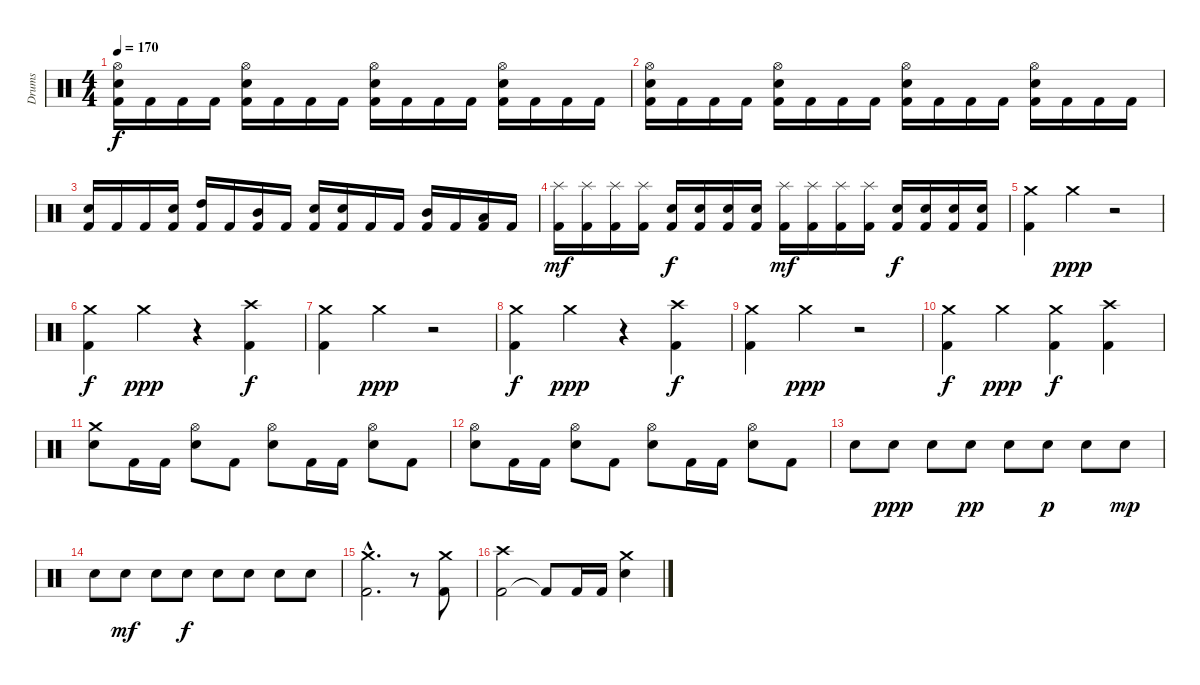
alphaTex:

\track ("Drums" "Drums") {instrument percussion}
\staff {score}
\articulation defaults
\ts (4 4)
\tempo 170
\clef neutral
\ks c
("Kick (hit) 2" "Electric Snare (hit)" "Hi-Hat (open)").16{dy f} "Kick (hit) 2".16 "Kick (hit) 2".16 "Kick (hit) 2".16 ("Kick (hit) 2" "Electric Snare (hit)" "Hi-Hat (open)").16 "Kick (hit) 2".16 "Kick (hit) 2".16 "Kick (hit) 2".16 ("Kick (hit) 2" "Electric Snare (hit)" "Hi-Hat (open)").16 "Kick (hit) 2".16 "Kick (hit) 2".16 "Kick (hit) 2".16 ("Kick (hit) 2" "Electric Snare (hit)" "Hi-Hat (open)").16 "Kick (hit) 2".16 "Kick (hit) 2".16 "Kick (hit) 2".16 |
("Kick (hit) 2" "Electric Snare (hit)" "Hi-Hat (open)").16 "Kick (hit) 2".16 "Kick (hit) 2".16 "Kick (hit) 2".16 ("Kick (hit) 2" "Electric Snare (hit)" "Hi-Hat (open)").16 "Kick (hit) 2".16 "Kick (hit) 2".16 "Kick (hit) 2".16 ("Kick (hit) 2" "Electric Snare (hit)" "Hi-Hat (open)").16 "Kick (hit) 2".16 "Kick (hit) 2".16 "Kick (hit) 2".16 ("Kick (hit) 2" "Electric Snare (hit)" "Hi-Hat (open)").16 "Kick (hit) 2".16 "Kick (hit) 2".16 "Kick (hit) 2".16 |
("Kick (hit) 2" "Electric Snare (hit)").16 "Kick (hit) 2".16 "Kick (hit) 2".16 ("Kick (hit) 2" "Electric Snare (hit)").16 ("Kick (hit) 2" "High Tom (hit)").16 "Kick (hit) 2".16 ("Kick (hit) 2" "Mid Tom (hit)").16 "Kick (hit) 2".16 ("Kick (hit) 2" "Electric Snare (hit)").16 ("Kick (hit) 2" "Electric Snare (hit)").16 "Kick (hit) 2".16 "Kick (hit) 2".16 ("Kick (hit) 2" "Mid Tom (hit)").16 "Kick (hit) 2".16 ("Kick (hit) 2" "Low Tom (hit)").16 "Kick (hit) 2".16 |
("Kick (hit) 2" "Splash (hit)").16{dy mf} ("Kick (hit) 2" "Splash (hit)").16 ("Kick (hit) 2" "Splash (hit)").16 ("Kick (hit) 2" "Splash (hit)").16 ("Kick (hit) 2" "Electric Snare (hit)").16{dy f} ("Kick (hit) 2" "Electric Snare (hit)").16 ("Kick (hit) 2" "Electric Snare (hit)").16 ("Kick (hit) 2" "Electric Snare (hit)").16 ("Kick (hit) 2" "Splash (hit)").16{dy mf} ("Kick (hit) 2" "Splash (hit)").16 ("Kick (hit) 2" "Splash (hit)").16 ("Kick (hit) 2" "Splash (hit)").16 ("Kick (hit) 2" "Electric Snare (hit)").16{dy f} ("Kick (hit) 2" "Electric Snare (hit)").16 ("Kick (hit) 2" "Electric Snare (hit)").16 ("Kick (hit) 2" "Electric Snare (hit)").16 |
\section ("" "")
("Kick (hit) 2" "Crash medium (hit)").4 "Crash medium (hit)".4{dy ppp} r.2 |
("Kick (hit) 2" "Crash medium (hit)").4{dy f} "Crash medium (hit)".4{dy ppp} r.4 ("Kick (hit) 2" "Crash high (hit)").4{dy f} |
("Kick (hit) 2" "Crash medium (hit)").4 "Crash medium (hit)".4{dy ppp} r.2 |
("Kick (hit) 2" "Crash medium (hit)").4{dy f} "Crash medium (hit)".4{dy ppp} r.4 ("Kick (hit) 2" "Crash high (hit)").4{dy f} |
("Kick (hit) 2" "Crash medium (hit)").4 "Crash medium (hit)".4{dy ppp} r.2 |
("Kick (hit) 2" "Crash medium (hit)").4{dy f} "Crash medium (hit)".4{dy ppp} ("Kick (hit) 2" "Crash medium (hit)").4{dy f} ("Kick (hit) 2" "Crash high (hit)").4 |
("Electric Snare (hit)" "Crash medium (hit)").8 "Kick (hit) 2".16 "Kick (hit) 2".16 ("Electric Snare (hit)" "Hi-Hat (open)").8 "Kick (hit) 2".8 ("Electric Snare (hit)" "Hi-Hat (open)").8 "Kick (hit) 2".16 "Kick (hit) 2".16 ("Electric Snare (hit)" "Hi-Hat (open)").8 "Kick (hit) 2".8 |
("Electric Snare (hit)" "Hi-Hat (open)").8 "Kick (hit) 2".16 "Kick (hit) 2".16 ("Electric Snare (hit)" "Hi-Hat (open)").8 "Kick (hit) 2".8 ("Electric Snare (hit)" "Hi-Hat (open)").8 "Kick (hit) 2".16 "Kick (hit) 2".16 ("Electric Snare (hit)" "Hi-Hat (open)").8 "Kick (hit) 2".8 |
"Electric Snare (hit)".8 "Electric Snare (hit)".8{dy ppp} "Electric Snare (hit)".8 "Electric Snare (hit)".8{dy pp} "Electric Snare (hit)".8 "Electric Snare (hit)".8{dy p} "Electric Snare (hit)".8 "Electric Snare (hit)".8{dy mp} |
"Electric Snare (hit)".8 "Electric Snare (hit)".8{dy mf} "Electric Snare (hit)".8 "Electric Snare (hit)".8{dy f} "Electric Snare (hit)".8 "Electric Snare (hit)".8 "Electric Snare (hit)".8 "Electric Snare (hit)".8 |
("Kick (hit) 2"{hac} "Crash medium (hit)"{hac}).2{d} r.8 ("Kick (hit) 2" "Crash medium (hit)").8 |
("Kick (hit) 2" "Crash high (hit)").2 "Kick (hit) 2"{t}.8 "Kick (hit) 2".16 "Kick (hit) 2".16 ("Electric Snare (hit)" "Crash medium (hit)").4
